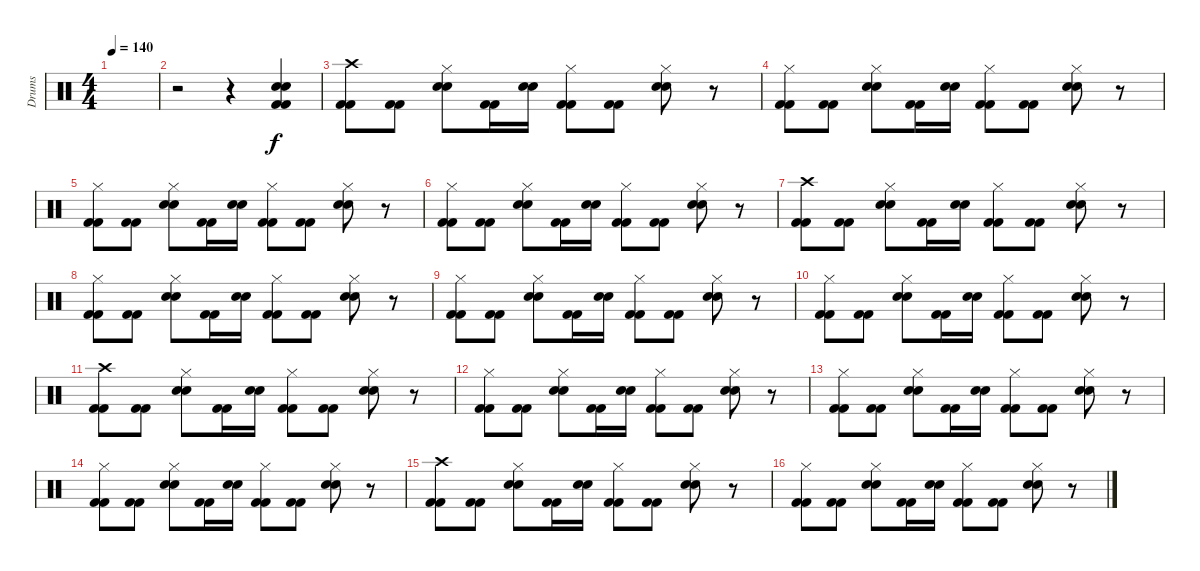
\track ("Drums" "Drums") {instrument percussion}
\staff {score}
\articulation defaults
\ts (4 4)
\tempo 140
\clef neutral
\ks c
|
r.2 r.4 ("Hand Clap (hit)" "Snare (hit) 2" "Kick (hit) 2" "Kick (hit) 2").4 |
("Crash high (hit)" "Kick (hit) 2" "Kick (hit) 2").8 ("Kick (hit) 2" "Kick (hit) 2").8 ("Hi-Hat (closed)" "Hand Clap (hit)" "Snare (hit) 2").8 ("Kick (hit) 2" "Kick (hit) 2").16 ("Hand Clap (hit)" "Snare (hit) 2").16 ("Hi-Hat (closed)" "Kick (hit) 2" "Kick (hit) 2").8 ("Kick (hit) 2" "Kick (hit) 2").8 ("Hi-Hat (closed)" "Hand Clap (hit)" "Snare (hit) 2").8 r.8 |
("Hi-Hat (closed)" "Kick (hit) 2" "Kick (hit) 2").8 ("Kick (hit) 2" "Kick (hit) 2").8 ("Hi-Hat (closed)" "Hand Clap (hit)" "Snare (hit) 2").8 ("Kick (hit) 2" "Kick (hit) 2").16 ("Hand Clap (hit)" "Snare (hit) 2").16 ("Hi-Hat (closed)" "Kick (hit) 2" "Kick (hit) 2").8 ("Kick (hit) 2" "Kick (hit) 2").8 ("Hi-Hat (closed)" "Hand Clap (hit)" "Snare (hit) 2").8 r.8 |
("Hi-Hat (closed)" "Kick (hit) 2" "Kick (hit) 2").8 ("Kick (hit) 2" "Kick (hit) 2").8 ("Hi-Hat (closed)" "Hand Clap (hit)" "Snare (hit) 2").8 ("Kick (hit) 2" "Kick (hit) 2").16 ("Hand Clap (hit)" "Snare (hit) 2").16 ("Hi-Hat (closed)" "Kick (hit) 2" "Kick (hit) 2").8 ("Kick (hit) 2" "Kick (hit) 2").8 ("Hi-Hat (closed)" "Hand Clap (hit)" "Snare (hit) 2").8 r.8 |
("Hi-Hat (closed)" "Kick (hit) 2" "Kick (hit) 2").8 ("Kick (hit) 2" "Kick (hit) 2").8 ("Hi-Hat (closed)" "Hand Clap (hit)" "Snare (hit) 2").8 ("Kick (hit) 2" "Kick (hit) 2").16 ("Hand Clap (hit)" "Snare (hit) 2").16 ("Hi-Hat (closed)" "Kick (hit) 2" "Kick (hit) 2").8 ("Kick (hit) 2" "Kick (hit) 2").8 ("Hi-Hat (closed)" "Hand Clap (hit)" "Snare (hit) 2").8 r.8 |
("Crash high (hit)" "Kick (hit) 2" "Kick (hit) 2").8 ("Kick (hit) 2" "Kick (hit) 2").8 ("Hi-Hat (closed)" "Hand Clap (hit)" "Snare (hit) 2").8 ("Kick (hit) 2" "Kick (hit) 2").16 ("Hand Clap (hit)" "Snare (hit) 2").16 ("Hi-Hat (closed)" "Kick (hit) 2" "Kick (hit) 2").8 ("Kick (hit) 2" "Kick (hit) 2").8 ("Hi-Hat (closed)" "Hand Clap (hit)" "Snare (hit) 2").8 r.8 |
("Hi-Hat (closed)" "Kick (hit) 2" "Kick (hit) 2").8 ("Kick (hit) 2" "Kick (hit) 2").8 ("Hi-Hat (closed)" "Hand Clap (hit)" "Snare (hit) 2").8 ("Kick (hit) 2" "Kick (hit) 2").16 ("Hand Clap (hit)" "Snare (hit) 2").16 ("Hi-Hat (closed)" "Kick (hit) 2" "Kick (hit) 2").8 ("Kick (hit) 2" "Kick (hit) 2").8 ("Hi-Hat (closed)" "Hand Clap (hit)" "Snare (hit) 2").8 r.8 |
("Hi-Hat (closed)" "Kick (hit) 2" "Kick (hit) 2").8 ("Kick (hit) 2" "Kick (hit) 2").8 ("Hi-Hat (closed)" "Hand Clap (hit)" "Snare (hit) 2").8 ("Kick (hit) 2" "Kick (hit) 2").16 ("Hand Clap (hit)" "Snare (hit) 2").16 ("Hi-Hat (closed)" "Kick (hit) 2" "Kick (hit) 2").8 ("Kick (hit) 2" "Kick (hit) 2").8 ("Hi-Hat (closed)" "Hand Clap (hit)" "Snare (hit) 2").8 r.8 |
("Hi-Hat (closed)" "Kick (hit) 2" "Kick (hit) 2").8 ("Kick (hit) 2" "Kick (hit) 2").8 ("Hi-Hat (closed)" "Hand Clap (hit)" "Snare (hit) 2").8 ("Kick (hit) 2" "Kick (hit) 2").16 ("Hand Clap (hit)" "Snare (hit) 2").16 ("Hi-Hat (closed)" "Kick (hit) 2" "Kick (hit) 2").8 ("Kick (hit) 2" "Kick (hit) 2").8 ("Hi-Hat (closed)" "Hand Clap (hit)" "Snare (hit) 2").8 r.8 |
("Crash high (hit)" "Kick (hit) 2" "Kick (hit) 2").8 ("Kick (hit) 2" "Kick (hit) 2").8 ("Hi-Hat (closed)" "Hand Clap (hit)" "Snare (hit) 2").8 ("Kick (hit) 2" "Kick (hit) 2").16 ("Hand Clap (hit)" "Snare (hit) 2").16 ("Hi-Hat (closed)" "Kick (hit) 2" "Kick (hit) 2").8 ("Kick (hit) 2" "Kick (hit) 2").8 ("Hi-Hat (closed)" "Hand Clap (hit)" "Snare (hit) 2").8 r.8 |
("Hi-Hat (closed)" "Kick (hit) 2" "Kick (hit) 2").8 ("Kick (hit) 2" "Kick (hit) 2").8 ("Hi-Hat (closed)" "Hand Clap (hit)" "Snare (hit) 2").8 ("Kick (hit) 2" "Kick (hit) 2").16 ("Hand Clap (hit)" "Snare (hit) 2").16 ("Hi-Hat (closed)" "Kick (hit) 2" "Kick (hit) 2").8 ("Kick (hit) 2" "Kick (hit) 2").8 ("Hi-Hat (closed)" "Hand Clap (hit)" "Snare (hit) 2").8 r.8 |
("Hi-Hat (closed)" "Kick (hit) 2" "Kick (hit) 2").8 ("Kick (hit) 2" "Kick (hit) 2").8 ("Hi-Hat (closed)" "Hand Clap (hit)" "Snare (hit) 2").8 ("Kick (hit) 2" "Kick (hit) 2").16 ("Hand Clap (hit)" "Snare (hit) 2").16 ("Hi-Hat (closed)" "Kick (hit) 2" "Kick (hit) 2").8 ("Kick (hit) 2" "Kick (hit) 2").8 ("Hi-Hat (closed)" "Hand Clap (hit)" "Snare (hit) 2").8 r.8 |
("Hi-Hat (closed)" "Kick (hit) 2" "Kick (hit) 2").8 ("Kick (hit) 2" "Kick (hit) 2").8 ("Hi-Hat (closed)" "Hand Clap (hit)" "Snare (hit) 2").8 ("Kick (hit) 2" "Kick (hit) 2").16 ("Hand Clap (hit)" "Snare (hit) 2").16 ("Hi-Hat (closed)" "Kick (hit) 2" "Kick (hit) 2").8 ("Kick (hit) 2" "Kick (hit) 2").8 ("Hi-Hat (closed)" "Hand Clap (hit)" "Snare (hit) 2").8 r.8 |
("Crash high (hit)" "Kick (hit) 2" "Kick (hit) 2").8 ("Kick (hit) 2" "Kick (hit) 2").8 ("Hi-Hat (closed)" "Hand Clap (hit)" "Snare (hit) 2").8 ("Kick (hit) 2" "Kick (hit) 2").16 ("Hand Clap (hit)" "Snare (hit) 2").16 ("Hi-Hat (closed)" "Kick (hit) 2" "Kick (hit) 2").8 ("Kick (hit) 2" "Kick (hit) 2").8 ("Hi-Hat (closed)" "Hand Clap (hit)" "Snare (hit) 2").8 r.8 |
("Hi-Hat (closed)" "Kick (hit) 2" "Kick (hit) 2").8 ("Kick (hit) 2" "Kick (hit) 2").8 ("Hi-Hat (closed)" "Hand Clap (hit)" "Snare (hit) 2").8 ("Kick (hit) 2" "Kick (hit) 2").16 ("Hand Clap (hit)" "Snare (hit) 2").16 ("Hi-Hat (closed)" "Kick (hit) 2" "Kick (hit) 2").8 ("Kick (hit) 2" "Kick (hit) 2").8 ("Hi-Hat (closed)" "Hand Clap (hit)" "Snare (hit) 2").8 r.8
